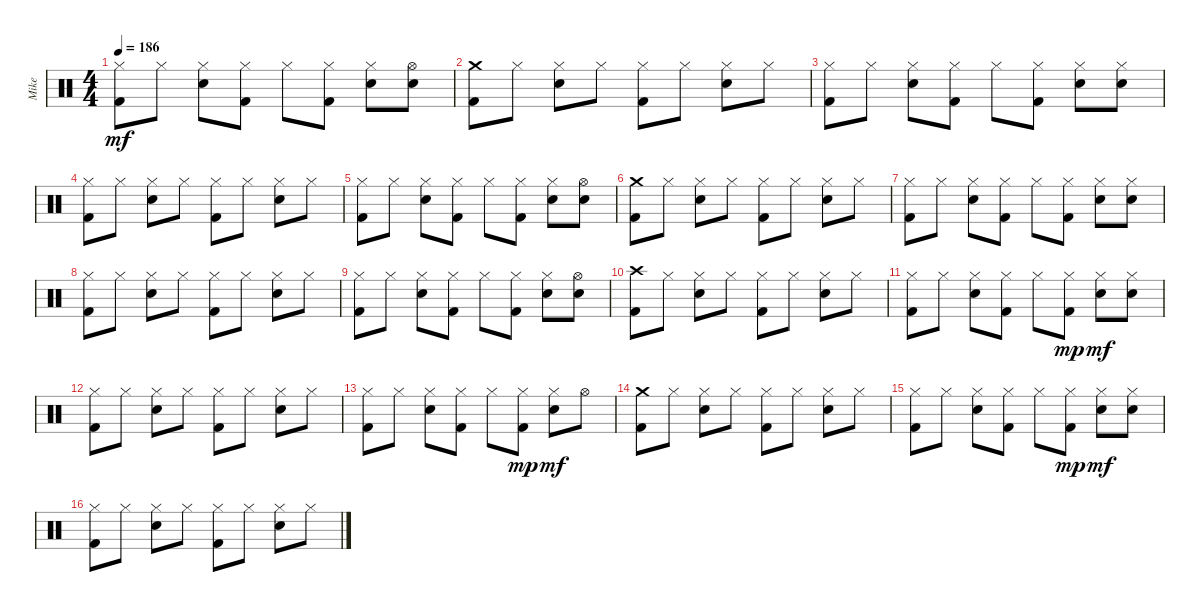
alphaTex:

\track ("Mike" "Mike") {instrument percussion}
\staff {score}
\articulation defaults
\ts (4 4)
\tempo 186
\clef neutral
\ks c
("Hi-Hat (closed)" "Kick (hit) 2").8{dy mf} "Hi-Hat (closed)".8 ("Hi-Hat (closed)" "Snare (hit) 2").8 ("Hi-Hat (closed)" "Kick (hit) 2").8 "Hi-Hat (closed)".8 ("Hi-Hat (closed)" "Kick (hit) 2").8 ("Hi-Hat (closed)" "Snare (hit) 2").8 ("Hi-Hat (open)" "Snare (hit) 2").8 |
("Crash medium (hit)" "Kick (hit) 2").8 "Hi-Hat (closed)".8 ("Hi-Hat (closed)" "Snare (hit) 2").8 "Hi-Hat (closed)".8 ("Hi-Hat (closed)" "Kick (hit) 2").8 "Hi-Hat (closed)".8 ("Hi-Hat (closed)" "Snare (hit) 2").8 "Hi-Hat (closed)".8 |
("Hi-Hat (closed)" "Kick (hit) 2").8 "Hi-Hat (closed)".8 ("Hi-Hat (closed)" "Snare (hit) 2").8 ("Hi-Hat (closed)" "Kick (hit) 2").8 "Hi-Hat (closed)".8 ("Hi-Hat (closed)" "Kick (hit) 2").8 ("Hi-Hat (closed)" "Snare (hit) 2").8 ("Hi-Hat (closed)" "Snare (hit) 2").8 |
("Hi-Hat (closed)" "Kick (hit) 2").8 "Hi-Hat (closed)".8 ("Hi-Hat (closed)" "Snare (hit) 2").8 "Hi-Hat (closed)".8 ("Hi-Hat (closed)" "Kick (hit) 2").8 "Hi-Hat (closed)".8 ("Hi-Hat (closed)" "Snare (hit) 2").8 "Hi-Hat (closed)".8 |
("Hi-Hat (closed)" "Kick (hit) 2").8 "Hi-Hat (closed)".8 ("Hi-Hat (closed)" "Snare (hit) 2").8 ("Hi-Hat (closed)" "Kick (hit) 2").8 "Hi-Hat (closed)".8 ("Hi-Hat (closed)" "Kick (hit) 2").8 ("Hi-Hat (closed)" "Snare (hit) 2").8 ("Hi-Hat (open)" "Snare (hit) 2").8 |
("Crash medium (hit)" "Kick (hit) 2").8 "Hi-Hat (closed)".8 ("Hi-Hat (closed)" "Snare (hit) 2").8 "Hi-Hat (closed)".8 ("Hi-Hat (closed)" "Kick (hit) 2").8 "Hi-Hat (closed)".8 ("Hi-Hat (closed)" "Snare (hit) 2").8 "Hi-Hat (closed)".8 |
("Hi-Hat (closed)" "Kick (hit) 2").8 "Hi-Hat (closed)".8 ("Hi-Hat (closed)" "Snare (hit) 2").8 ("Hi-Hat (closed)" "Kick (hit) 2").8 "Hi-Hat (closed)".8 ("Hi-Hat (closed)" "Kick (hit) 2").8 ("Hi-Hat (closed)" "Snare (hit) 2").8 ("Hi-Hat (closed)" "Snare (hit) 2").8 |
("Hi-Hat (closed)" "Kick (hit) 2").8 "Hi-Hat (closed)".8 ("Hi-Hat (closed)" "Snare (hit) 2").8 "Hi-Hat (closed)".8 ("Hi-Hat (closed)" "Kick (hit) 2").8 "Hi-Hat (closed)".8 ("Hi-Hat (closed)" "Snare (hit) 2").8 "Hi-Hat (closed)".8 |
("Hi-Hat (closed)" "Kick (hit) 2").8 "Hi-Hat (closed)".8 ("Hi-Hat (closed)" "Snare (hit) 2").8 ("Hi-Hat (closed)" "Kick (hit) 2").8 "Hi-Hat (closed)".8 ("Hi-Hat (closed)" "Kick (hit) 2").8 ("Hi-Hat (closed)" "Snare (hit) 2").8 ("Hi-Hat (open)" "Snare (hit) 2").8 |
("Crash high (hit)" "Kick (hit) 2").8 "Hi-Hat (closed)".8 ("Hi-Hat (closed)" "Snare (hit) 2").8 "Hi-Hat (closed)".8 ("Hi-Hat (closed)" "Kick (hit) 2").8 "Hi-Hat (closed)".8 ("Hi-Hat (closed)" "Snare (hit) 2").8 "Hi-Hat (closed)".8 |
("Hi-Hat (closed)" "Kick (hit) 2").8 "Hi-Hat (closed)".8 ("Hi-Hat (closed)" "Snare (hit) 2").8 ("Hi-Hat (closed)" "Kick (hit) 2").8 "Hi-Hat (closed)".8 ("Hi-Hat (closed)" "Kick (hit) 2").8{dy mp} ("Hi-Hat (closed)" "Snare (hit) 2").8{dy mf} ("Hi-Hat (closed)" "Snare (hit) 2").8 |
("Hi-Hat (closed)" "Kick (hit) 2").8 "Hi-Hat (closed)".8 ("Hi-Hat (closed)" "Snare (hit) 2").8 "Hi-Hat (closed)".8 ("Hi-Hat (closed)" "Kick (hit) 2").8 "Hi-Hat (closed)".8 ("Hi-Hat (closed)" "Snare (hit) 2").8 "Hi-Hat (closed)".8 |
("Hi-Hat (closed)" "Kick (hit) 2").8 "Hi-Hat (closed)".8 ("Hi-Hat (closed)" "Snare (hit) 2").8 ("Hi-Hat (closed)" "Kick (hit) 2").8 "Hi-Hat (closed)".8 ("Hi-Hat (closed)" "Kick (hit) 2").8{dy mp} ("Hi-Hat (closed)" "Snare (hit) 2").8{dy mf} "Hi-Hat (open)".8 |
("Crash medium (hit)" "Kick (hit) 2").8 "Hi-Hat (closed)".8 ("Hi-Hat (closed)" "Snare (hit) 2").8 "Hi-Hat (closed)".8 ("Hi-Hat (closed)" "Kick (hit) 2").8 "Hi-Hat (closed)".8 ("Hi-Hat (closed)" "Snare (hit) 2").8 "Hi-Hat (closed)".8 |
("Hi-Hat (closed)" "Kick (hit) 2").8 "Hi-Hat (closed)".8 ("Hi-Hat (closed)" "Snare (hit) 2").8 ("Hi-Hat (closed)" "Kick (hit) 2").8 "Hi-Hat (closed)".8 ("Hi-Hat (closed)" "Kick (hit) 2").8{dy mp} ("Hi-Hat (closed)" "Snare (hit) 2").8{dy mf} ("Hi-Hat (closed)" "Snare (hit) 2").8 |
("Hi-Hat (closed)" "Kick (hit) 2").8 "Hi-Hat (closed)".8 ("Hi-Hat (closed)" "Snare (hit) 2").8 "Hi-Hat (closed)".8 ("Hi-Hat (closed)" "Kick (hit) 2").8 "Hi-Hat (closed)".8 ("Hi-Hat (closed)" "Snare (hit) 2").8 "Hi-Hat (closed)".8
